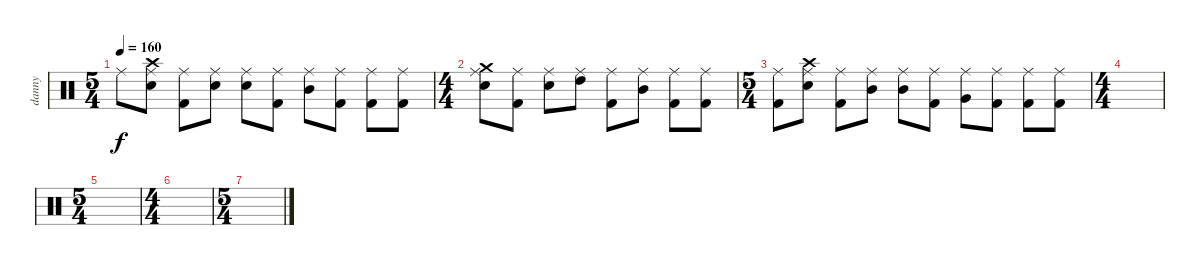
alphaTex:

\track ("danny" "danny") {instrument percussion}
\staff {score}
\articulation defaults
\ts (5 4)
\tempo 160
\clef neutral
\ks c "Ride (middle)".8{dy f}
("Crash high (hit)" "Ride (middle)" "Snare (hit) 2").8 ("Ride (middle)" "Kick (hit) 2").8 ("Ride (middle)" "Snare (hit) 2").8 ("Ride (middle)" "Snare (hit) 2").8 ("Ride (middle)" "Kick (hit) 2").8 ("Ride (middle)" "Mid Tom (hit)").8 ("Ride (middle)" "Kick (hit) 2").8 ("Ride (middle)" "Kick (hit) 2").8 ("Ride (middle)" "Kick (hit) 2").8 |
\ts (4 4)
("Crash medium (hit)" "Ride (middle)" "Snare (hit) 2").8 ("Ride (middle)" "Kick (hit) 2").8 ("Ride (middle)" "Snare (hit) 2").8 ("Ride (middle)" "High Tom (hit)").8 ("Ride (middle)" "Kick (hit) 2").8 ("Ride (middle)" "Mid Tom (hit)").8 ("Ride (middle)" "Kick (hit) 2").8 ("Ride (middle)" "Kick (hit) 2").8 |
\ts (5 4)
("Ride (middle)" "Kick (hit) 2").8 ("Crash high (hit)" "Ride (middle)" "Snare (hit) 2").8 ("Ride (middle)" "Kick (hit) 2").8 ("Ride (middle)" "Mid Tom (hit)").8 ("Ride (middle)" "Mid Tom (hit)").8 ("Ride (middle)" "Kick (hit) 2").8 ("Ride (middle)" "Very Low Tom (hit)").8 ("Ride (middle)" "Kick (hit) 2").8 ("Ride (middle)" "Kick (hit) 2").8 ("Ride (middle)" "Kick (hit) 2").8 |
\ts (4 4)
|
\ts (5 4)
|
\ts (4 4)
|
\ts (5 4)
